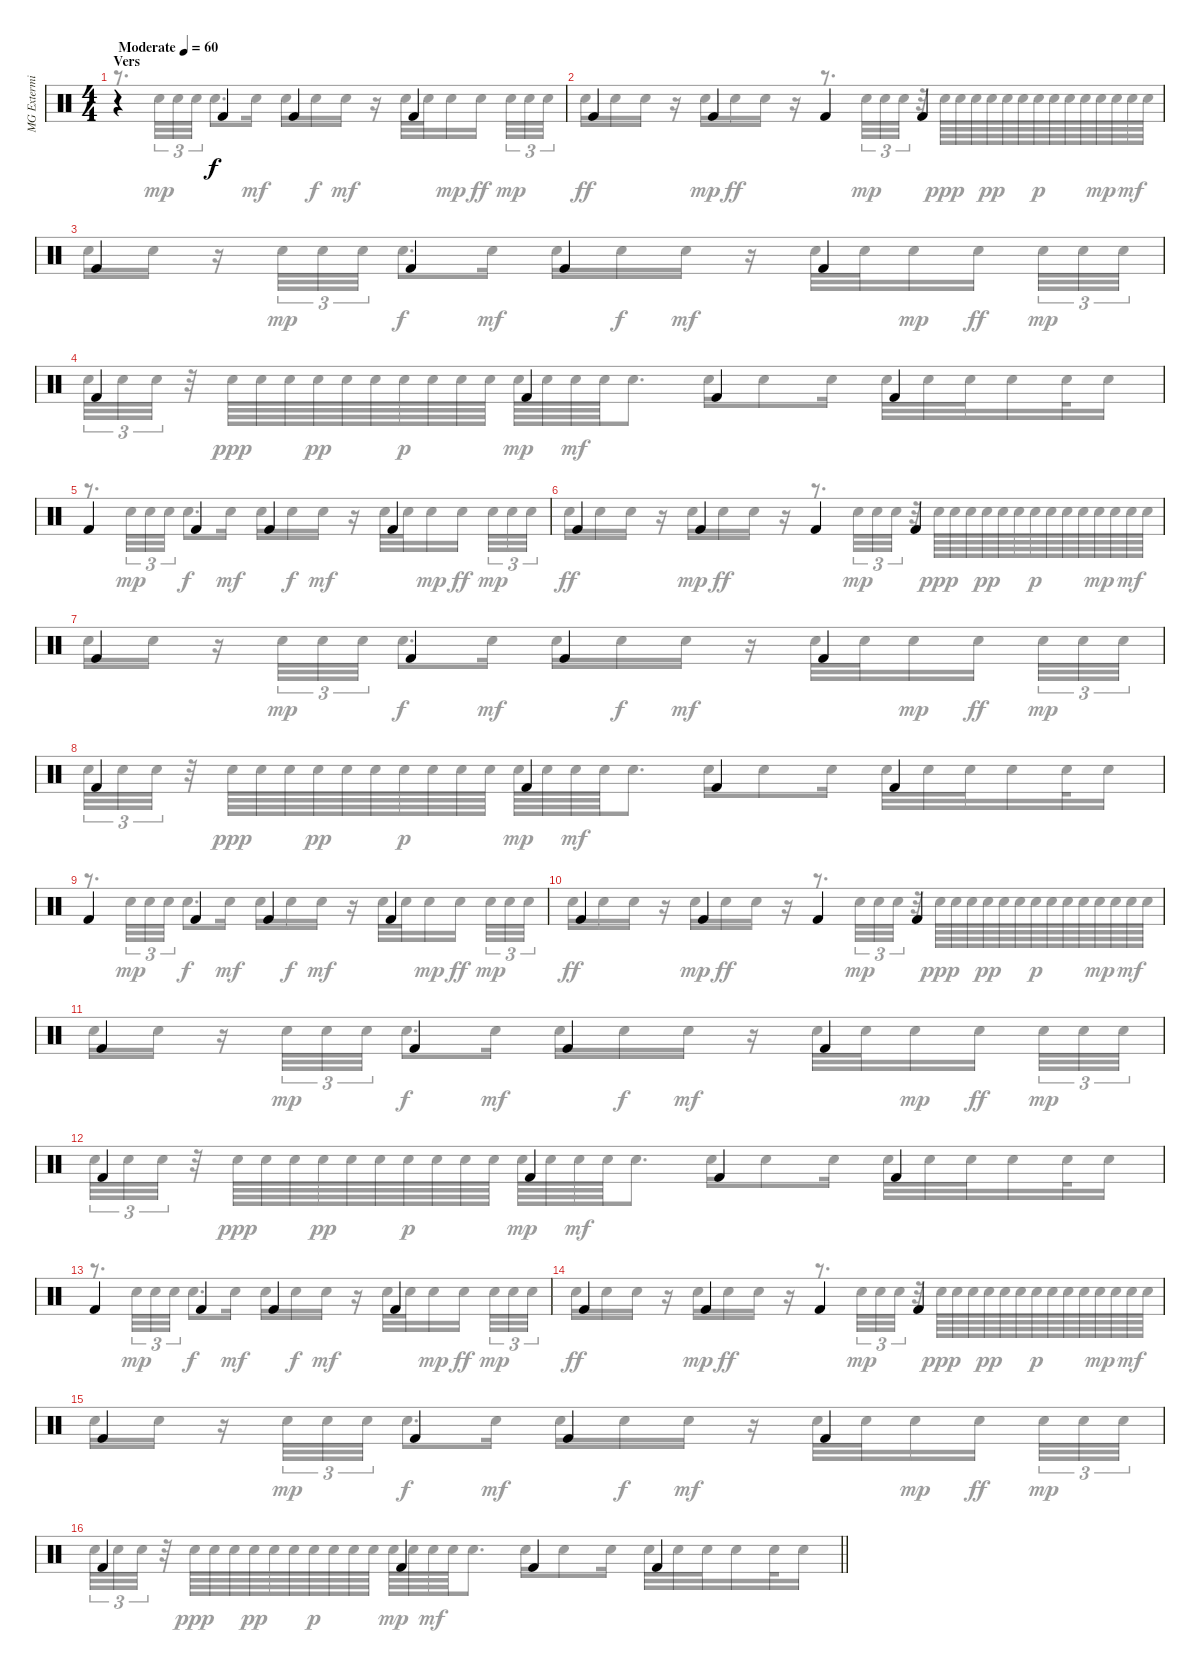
\track ("MG Exterminator" "MG Extermi") {instrument percussion}
\staff {score}
\articulation defaults
\voice
\ts (4 4)
\section ("" "Vers")
\tempo (60 "Moderate")
\clef neutral
\ks c
r.4{dy f} "Kick (hit) 2".4 "Kick (hit) 2".4 "Kick (hit) 2".4 |
"Kick (hit) 2".4 "Kick (hit) 2".4 "Kick (hit) 2".4 "Kick (hit) 2".4 |
"Kick (hit) 2".4 "Kick (hit) 2".4 "Kick (hit) 2".4 "Kick (hit) 2".4 |
"Kick (hit) 2".4 "Kick (hit) 2".4 "Kick (hit) 2".4 "Kick (hit) 2".4 |
"Kick (hit) 2".4 "Kick (hit) 2".4 "Kick (hit) 2".4 "Kick (hit) 2".4 |
"Kick (hit) 2".4 "Kick (hit) 2".4 "Kick (hit) 2".4 "Kick (hit) 2".4 |
"Kick (hit) 2".4 "Kick (hit) 2".4 "Kick (hit) 2".4 "Kick (hit) 2".4 |
"Kick (hit) 2".4 "Kick (hit) 2".4 "Kick (hit) 2".4 "Kick (hit) 2".4 |
"Kick (hit) 2".4 "Kick (hit) 2".4 "Kick (hit) 2".4 "Kick (hit) 2".4 |
"Kick (hit) 2".4 "Kick (hit) 2".4 "Kick (hit) 2".4 "Kick (hit) 2".4 |
"Kick (hit) 2".4 "Kick (hit) 2".4 "Kick (hit) 2".4 "Kick (hit) 2".4 |
"Kick (hit) 2".4 "Kick (hit) 2".4 "Kick (hit) 2".4 "Kick (hit) 2".4 |
"Kick (hit) 2".4 "Kick (hit) 2".4 "Kick (hit) 2".4 "Kick (hit) 2".4 |
"Kick (hit) 2".4 "Kick (hit) 2".4 "Kick (hit) 2".4 "Kick (hit) 2".4 |
"Kick (hit) 2".4 "Kick (hit) 2".4 "Kick (hit) 2".4 "Kick (hit) 2".4 |
\barLineRight lightlight "Kick (hit) 2".4 "Kick (hit) 2".4 "Kick (hit) 2".4 "Kick (hit) 2".4
\voice
\clef neutral
\ottava regular
\simile none
\ks c
r.8{d dy mp} "Snare (hit) 2".32{tu (3 2)} "Snare (hit) 2".32{tu (3 2)} "Snare (hit) 2".32{tu (3 2)} "Snare (hit) 2".8{d dy f} "Snare (hit) 2".16{dy mf} "Snare (hit) 2".16 "Snare (hit) 2".16{dy f} "Snare (hit) 2".16{dy mf} r.16 "Snare (hit) 2".32 "Snare (hit) 2".32 "Snare (hit) 2".16{dy mp} "Snare (hit) 2".16{dy ff beam splitsecondary} "Snare (hit) 2".32{tu (3 2) dy mp} "Snare (hit) 2".32{tu (3 2)} "Snare (hit) 2".32{tu (3 2)} |
"Snare (hit) 2".16{dy ff} "Snare (hit) 2".16 "Snare (hit) 2".16 r.16 "Snare (hit) 2".16{dy mp} "Snare (hit) 2".16{dy ff} "Snare (hit) 2".16 r.16 r.8{d} "Snare (hit) 2".32{tu (3 2) dy mp} "Snare (hit) 2".32{tu (3 2)} "Snare (hit) 2".32{tu (3 2)} r.32 "Snare (hit) 2".64{dy ppp} "Snare (hit) 2".64 "Snare (hit) 2".64 "Snare (hit) 2".64{dy pp} "Snare (hit) 2".64 "Snare (hit) 2".64 "Snare (hit) 2".64{dy p} "Snare (hit) 2".64 "Snare (hit) 2".64 "Snare (hit) 2".64 "Snare (hit) 2".64{dy mp} "Snare (hit) 2".64 "Snare (hit) 2".64{dy mf} "Snare (hit) 2".64 |
"Snare (hit) 2".16 "Snare (hit) 2".16 r.16 "Snare (hit) 2".32{tu (3 2) dy mp} "Snare (hit) 2".32{tu (3 2)} "Snare (hit) 2".32{tu (3 2)} "Snare (hit) 2".8{d dy f} "Snare (hit) 2".16{dy mf} "Snare (hit) 2".16 "Snare (hit) 2".16{dy f} "Snare (hit) 2".16{dy mf} r.16 "Snare (hit) 2".32 "Snare (hit) 2".32 "Snare (hit) 2".16{dy mp} "Snare (hit) 2".16{dy ff beam splitsecondary} "Snare (hit) 2".32{tu (3 2) dy mp} "Snare (hit) 2".32{tu (3 2)} "Snare (hit) 2".32{tu (3 2)} |
"Snare (hit) 2".32{tu (3 2)} "Snare (hit) 2".32{tu (3 2)} "Snare (hit) 2".32{tu (3 2)} r.32 "Snare (hit) 2".64{dy ppp} "Snare (hit) 2".64 "Snare (hit) 2".64 "Snare (hit) 2".64{dy pp} "Snare (hit) 2".64 "Snare (hit) 2".64 "Snare (hit) 2".64{dy p} "Snare (hit) 2".64 "Snare (hit) 2".64 "Snare (hit) 2".64 "Snare (hit) 2".64{dy mp} "Snare (hit) 2".64 "Snare (hit) 2".64{dy mf} "Snare (hit) 2".64 "Snare (hit) 2".8{d} "Snare (hit) 2".16 "Snare (hit) 2".8 "Snare (hit) 2".16 "Snare (hit) 2".32 "Snare (hit) 2".32 "Snare (hit) 2".32 "Snare (hit) 2".16 "Snare (hit) 2".32 "Snare (hit) 2".16 |
r.8{d} "Snare (hit) 2".32{tu (3 2) dy mp} "Snare (hit) 2".32{tu (3 2)} "Snare (hit) 2".32{tu (3 2)} "Snare (hit) 2".8{d dy f} "Snare (hit) 2".16{dy mf} "Snare (hit) 2".16 "Snare (hit) 2".16{dy f} "Snare (hit) 2".16{dy mf} r.16 "Snare (hit) 2".32 "Snare (hit) 2".32 "Snare (hit) 2".16{dy mp} "Snare (hit) 2".16{dy ff beam splitsecondary} "Snare (hit) 2".32{tu (3 2) dy mp} "Snare (hit) 2".32{tu (3 2)} "Snare (hit) 2".32{tu (3 2)} |
"Snare (hit) 2".16{dy ff} "Snare (hit) 2".16 "Snare (hit) 2".16 r.16 "Snare (hit) 2".16{dy mp} "Snare (hit) 2".16{dy ff} "Snare (hit) 2".16 r.16 r.8{d} "Snare (hit) 2".32{tu (3 2) dy mp} "Snare (hit) 2".32{tu (3 2)} "Snare (hit) 2".32{tu (3 2)} r.32 "Snare (hit) 2".64{dy ppp} "Snare (hit) 2".64 "Snare (hit) 2".64 "Snare (hit) 2".64{dy pp} "Snare (hit) 2".64 "Snare (hit) 2".64 "Snare (hit) 2".64{dy p} "Snare (hit) 2".64 "Snare (hit) 2".64 "Snare (hit) 2".64 "Snare (hit) 2".64{dy mp} "Snare (hit) 2".64 "Snare (hit) 2".64{dy mf} "Snare (hit) 2".64 |
"Snare (hit) 2".16 "Snare (hit) 2".16 r.16 "Snare (hit) 2".32{tu (3 2) dy mp} "Snare (hit) 2".32{tu (3 2)} "Snare (hit) 2".32{tu (3 2)} "Snare (hit) 2".8{d dy f} "Snare (hit) 2".16{dy mf} "Snare (hit) 2".16 "Snare (hit) 2".16{dy f} "Snare (hit) 2".16{dy mf} r.16 "Snare (hit) 2".32 "Snare (hit) 2".32 "Snare (hit) 2".16{dy mp} "Snare (hit) 2".16{dy ff beam splitsecondary} "Snare (hit) 2".32{tu (3 2) dy mp} "Snare (hit) 2".32{tu (3 2)} "Snare (hit) 2".32{tu (3 2)} |
"Snare (hit) 2".32{tu (3 2)} "Snare (hit) 2".32{tu (3 2)} "Snare (hit) 2".32{tu (3 2)} r.32 "Snare (hit) 2".64{dy ppp} "Snare (hit) 2".64 "Snare (hit) 2".64 "Snare (hit) 2".64{dy pp} "Snare (hit) 2".64 "Snare (hit) 2".64 "Snare (hit) 2".64{dy p} "Snare (hit) 2".64 "Snare (hit) 2".64 "Snare (hit) 2".64 "Snare (hit) 2".64{dy mp} "Snare (hit) 2".64 "Snare (hit) 2".64{dy mf} "Snare (hit) 2".64 "Snare (hit) 2".8{d} "Snare (hit) 2".16 "Snare (hit) 2".8 "Snare (hit) 2".16 "Snare (hit) 2".32 "Snare (hit) 2".32 "Snare (hit) 2".32 "Snare (hit) 2".16 "Snare (hit) 2".32 "Snare (hit) 2".16 |
r.8{d} "Snare (hit) 2".32{tu (3 2) dy mp} "Snare (hit) 2".32{tu (3 2)} "Snare (hit) 2".32{tu (3 2)} "Snare (hit) 2".8{d dy f} "Snare (hit) 2".16{dy mf} "Snare (hit) 2".16 "Snare (hit) 2".16{dy f} "Snare (hit) 2".16{dy mf} r.16 "Snare (hit) 2".32 "Snare (hit) 2".32 "Snare (hit) 2".16{dy mp} "Snare (hit) 2".16{dy ff beam splitsecondary} "Snare (hit) 2".32{tu (3 2) dy mp} "Snare (hit) 2".32{tu (3 2)} "Snare (hit) 2".32{tu (3 2)} |
"Snare (hit) 2".16{dy ff} "Snare (hit) 2".16 "Snare (hit) 2".16 r.16 "Snare (hit) 2".16{dy mp} "Snare (hit) 2".16{dy ff} "Snare (hit) 2".16 r.16 r.8{d} "Snare (hit) 2".32{tu (3 2) dy mp} "Snare (hit) 2".32{tu (3 2)} "Snare (hit) 2".32{tu (3 2)} r.32 "Snare (hit) 2".64{dy ppp} "Snare (hit) 2".64 "Snare (hit) 2".64 "Snare (hit) 2".64{dy pp} "Snare (hit) 2".64 "Snare (hit) 2".64 "Snare (hit) 2".64{dy p} "Snare (hit) 2".64 "Snare (hit) 2".64 "Snare (hit) 2".64 "Snare (hit) 2".64{dy mp} "Snare (hit) 2".64 "Snare (hit) 2".64{dy mf} "Snare (hit) 2".64 |
"Snare (hit) 2".16 "Snare (hit) 2".16 r.16 "Snare (hit) 2".32{tu (3 2) dy mp} "Snare (hit) 2".32{tu (3 2)} "Snare (hit) 2".32{tu (3 2)} "Snare (hit) 2".8{d dy f} "Snare (hit) 2".16{dy mf} "Snare (hit) 2".16 "Snare (hit) 2".16{dy f} "Snare (hit) 2".16{dy mf} r.16 "Snare (hit) 2".32 "Snare (hit) 2".32 "Snare (hit) 2".16{dy mp} "Snare (hit) 2".16{dy ff beam splitsecondary} "Snare (hit) 2".32{tu (3 2) dy mp} "Snare (hit) 2".32{tu (3 2)} "Snare (hit) 2".32{tu (3 2)} |
"Snare (hit) 2".32{tu (3 2)} "Snare (hit) 2".32{tu (3 2)} "Snare (hit) 2".32{tu (3 2)} r.32 "Snare (hit) 2".64{dy ppp} "Snare (hit) 2".64 "Snare (hit) 2".64 "Snare (hit) 2".64{dy pp} "Snare (hit) 2".64 "Snare (hit) 2".64 "Snare (hit) 2".64{dy p} "Snare (hit) 2".64 "Snare (hit) 2".64 "Snare (hit) 2".64 "Snare (hit) 2".64{dy mp} "Snare (hit) 2".64 "Snare (hit) 2".64{dy mf} "Snare (hit) 2".64 "Snare (hit) 2".8{d} "Snare (hit) 2".16 "Snare (hit) 2".8 "Snare (hit) 2".16 "Snare (hit) 2".32 "Snare (hit) 2".32 "Snare (hit) 2".32 "Snare (hit) 2".16 "Snare (hit) 2".32 "Snare (hit) 2".16 |
r.8{d} "Snare (hit) 2".32{tu (3 2) dy mp} "Snare (hit) 2".32{tu (3 2)} "Snare (hit) 2".32{tu (3 2)} "Snare (hit) 2".8{d dy f} "Snare (hit) 2".16{dy mf} "Snare (hit) 2".16 "Snare (hit) 2".16{dy f} "Snare (hit) 2".16{dy mf} r.16 "Snare (hit) 2".32 "Snare (hit) 2".32 "Snare (hit) 2".16{dy mp} "Snare (hit) 2".16{dy ff beam splitsecondary} "Snare (hit) 2".32{tu (3 2) dy mp} "Snare (hit) 2".32{tu (3 2)} "Snare (hit) 2".32{tu (3 2)} |
"Snare (hit) 2".16{dy ff} "Snare (hit) 2".16 "Snare (hit) 2".16 r.16 "Snare (hit) 2".16{dy mp} "Snare (hit) 2".16{dy ff} "Snare (hit) 2".16 r.16 r.8{d} "Snare (hit) 2".32{tu (3 2) dy mp} "Snare (hit) 2".32{tu (3 2)} "Snare (hit) 2".32{tu (3 2)} r.32 "Snare (hit) 2".64{dy ppp} "Snare (hit) 2".64 "Snare (hit) 2".64 "Snare (hit) 2".64{dy pp} "Snare (hit) 2".64 "Snare (hit) 2".64 "Snare (hit) 2".64{dy p} "Snare (hit) 2".64 "Snare (hit) 2".64 "Snare (hit) 2".64 "Snare (hit) 2".64{dy mp} "Snare (hit) 2".64 "Snare (hit) 2".64{dy mf} "Snare (hit) 2".64 |
"Snare (hit) 2".16 "Snare (hit) 2".16 r.16 "Snare (hit) 2".32{tu (3 2) dy mp} "Snare (hit) 2".32{tu (3 2)} "Snare (hit) 2".32{tu (3 2)} "Snare (hit) 2".8{d dy f} "Snare (hit) 2".16{dy mf} "Snare (hit) 2".16 "Snare (hit) 2".16{dy f} "Snare (hit) 2".16{dy mf} r.16 "Snare (hit) 2".32 "Snare (hit) 2".32 "Snare (hit) 2".16{dy mp} "Snare (hit) 2".16{dy ff beam splitsecondary} "Snare (hit) 2".32{tu (3 2) dy mp} "Snare (hit) 2".32{tu (3 2)} "Snare (hit) 2".32{tu (3 2)} |
\barLineRight lightlight "Snare (hit) 2".32{tu (3 2)} "Snare (hit) 2".32{tu (3 2)} "Snare (hit) 2".32{tu (3 2)}
r.32 "Snare (hit) 2".64{dy ppp} "Snare (hit) 2".64 "Snare (hit) 2".64 "Snare (hit) 2".64{dy pp} "Snare (hit) 2".64 "Snare (hit) 2".64 "Snare (hit) 2".64{dy p} "Snare (hit) 2".64 "Snare (hit) 2".64 "Snare (hit) 2".64 "Snare (hit) 2".64{dy mp} "Snare (hit) 2".64 "Snare (hit) 2".64{dy mf} "Snare (hit) 2".64 "Snare (hit) 2".8{d} "Snare (hit) 2".16 "Snare (hit) 2".8 "Snare (hit) 2".16 "Snare (hit) 2".32 "Snare (hit) 2".32 "Snare (hit) 2".32 "Snare (hit) 2".16 "Snare (hit) 2".32 "Snare (hit) 2".16
